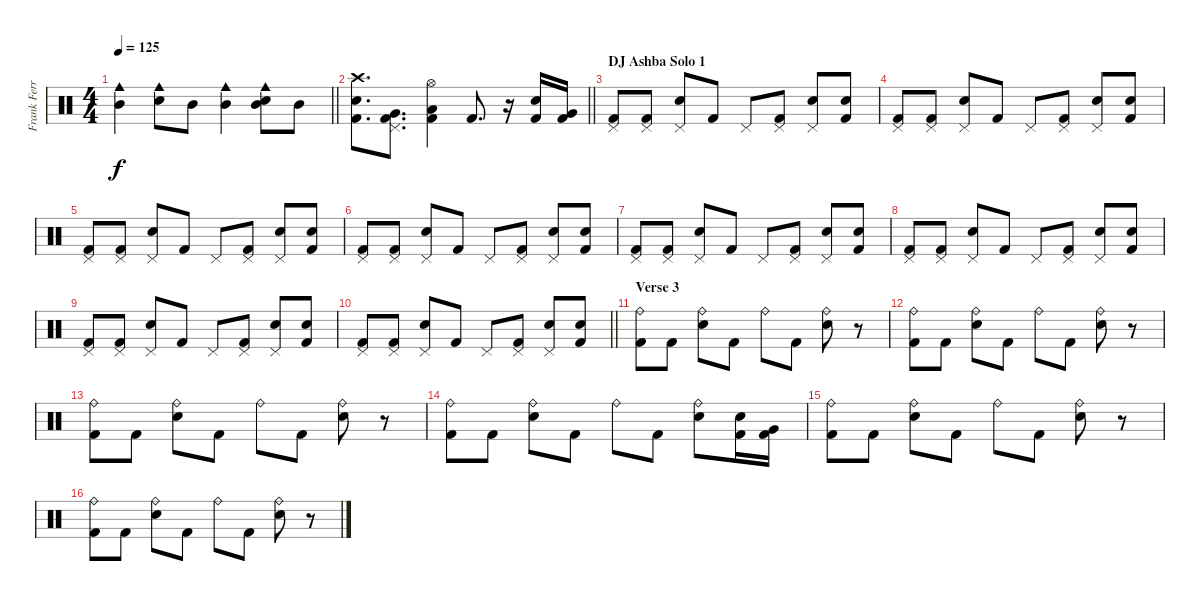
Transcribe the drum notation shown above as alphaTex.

\track ("Frank Ferrer" "Frank Ferr") {instrument percussion}
\staff {score}
\articulation defaults
\ts (4 4)
\tempo 125
\clef neutral
\barLineRight lightlight
\ks c
("Mid Tom (hit)" "Cowbell medium (hit)").4{dy f} ("Electric Snare (hit)" "Cowbell medium (hit)").8 "Mid Tom (hit)".8 ("Mid Tom (hit)" "Cowbell medium (hit)").4 ("Electric Snare (hit)" "Mid Tom (hit)" "Cowbell medium (hit)").8 "Mid Tom (hit)".8 |
\barLineRight lightlight
("Kick (hit) 2" "Snare (hit) 2" "Crash high (hit)").8{d} ("Kick (hit) 2" "Very Low Tom (hit)" "Pedal Hi-Hat (hit)").8{d} ("Kick (hit) 2" "Low Tom (hit)" "Hi-Hat (open)").4 "Kick (hit) 2".8{d} r.16 ("Kick (hit) 2" "Electric Snare (hit)").16 ("Kick (hit) 2" "Very Low Tom (hit)").16 |
\section ("" "DJ Ashba Solo 1")
("Kick (hit) 2" "Pedal Hi-Hat (hit)").8 ("Kick (hit) 2" "Pedal Hi-Hat (hit)").8 ("Electric Snare (hit)" "Pedal Hi-Hat (hit)").8 "Kick (hit) 2".8 "Pedal Hi-Hat (hit)".8 ("Kick (hit) 2" "Pedal Hi-Hat (hit)").8 ("Electric Snare (hit)" "Pedal Hi-Hat (hit)").8 ("Kick (hit) 2" "Snare (hit) 2").8 |
("Kick (hit) 2" "Pedal Hi-Hat (hit)").8 ("Kick (hit) 2" "Pedal Hi-Hat (hit)").8 ("Electric Snare (hit)" "Pedal Hi-Hat (hit)").8 "Kick (hit) 2".8 "Pedal Hi-Hat (hit)".8 ("Kick (hit) 2" "Pedal Hi-Hat (hit)").8 ("Electric Snare (hit)" "Pedal Hi-Hat (hit)").8 ("Kick (hit) 2" "Snare (hit) 2").8 |
("Kick (hit) 2" "Pedal Hi-Hat (hit)").8 ("Kick (hit) 2" "Pedal Hi-Hat (hit)").8 ("Electric Snare (hit)" "Pedal Hi-Hat (hit)").8 "Kick (hit) 2".8 "Pedal Hi-Hat (hit)".8 ("Kick (hit) 2" "Pedal Hi-Hat (hit)").8 ("Electric Snare (hit)" "Pedal Hi-Hat (hit)").8 ("Kick (hit) 2" "Snare (hit) 2").8 |
("Kick (hit) 2" "Pedal Hi-Hat (hit)").8 ("Kick (hit) 2" "Pedal Hi-Hat (hit)").8 ("Electric Snare (hit)" "Pedal Hi-Hat (hit)").8 "Kick (hit) 2".8 "Pedal Hi-Hat (hit)".8 ("Kick (hit) 2" "Pedal Hi-Hat (hit)").8 ("Electric Snare (hit)" "Pedal Hi-Hat (hit)").8 ("Kick (hit) 2" "Snare (hit) 2").8 |
("Kick (hit) 2" "Pedal Hi-Hat (hit)").8 ("Kick (hit) 2" "Pedal Hi-Hat (hit)").8 ("Electric Snare (hit)" "Pedal Hi-Hat (hit)").8 "Kick (hit) 2".8 "Pedal Hi-Hat (hit)".8 ("Kick (hit) 2" "Pedal Hi-Hat (hit)").8 ("Electric Snare (hit)" "Pedal Hi-Hat (hit)").8 ("Kick (hit) 2" "Snare (hit) 2").8 |
("Kick (hit) 2" "Pedal Hi-Hat (hit)").8 ("Kick (hit) 2" "Pedal Hi-Hat (hit)").8 ("Electric Snare (hit)" "Pedal Hi-Hat (hit)").8 "Kick (hit) 2".8 "Pedal Hi-Hat (hit)".8 ("Kick (hit) 2" "Pedal Hi-Hat (hit)").8 ("Electric Snare (hit)" "Pedal Hi-Hat (hit)").8 ("Kick (hit) 2" "Snare (hit) 2").8 |
("Kick (hit) 2" "Pedal Hi-Hat (hit)").8 ("Kick (hit) 2" "Pedal Hi-Hat (hit)").8 ("Electric Snare (hit)" "Pedal Hi-Hat (hit)").8 "Kick (hit) 2".8 "Pedal Hi-Hat (hit)".8 ("Kick (hit) 2" "Pedal Hi-Hat (hit)").8 ("Electric Snare (hit)" "Pedal Hi-Hat (hit)").8 ("Kick (hit) 2" "Snare (hit) 2").8 |
\barLineRight lightlight
("Kick (hit) 2" "Pedal Hi-Hat (hit)").8 ("Kick (hit) 2" "Pedal Hi-Hat (hit)").8 ("Electric Snare (hit)" "Pedal Hi-Hat (hit)").8 "Kick (hit) 2".8 "Pedal Hi-Hat (hit)".8 ("Kick (hit) 2" "Pedal Hi-Hat (hit)").8 ("Electric Snare (hit)" "Pedal Hi-Hat (hit)").8 ("Kick (hit) 2" "Snare (hit) 2").8 |
\section ("" "Verse 3")
("Kick (hit) 2" "Ride (bell)").8 "Kick (hit) 2".8 ("Electric Snare (hit)" "Ride (bell)").8 "Kick (hit) 2".8 "Ride (bell)".8 "Kick (hit) 2".8 ("Electric Snare (hit)" "Ride (bell)").8 r.8 |
("Kick (hit) 2" "Ride (bell)").8 "Kick (hit) 2".8 ("Electric Snare (hit)" "Ride (bell)").8 "Kick (hit) 2".8 "Ride (bell)".8 "Kick (hit) 2".8 ("Electric Snare (hit)" "Ride (bell)").8 r.8 |
("Kick (hit) 2" "Ride (bell)").8 "Kick (hit) 2".8 ("Electric Snare (hit)" "Ride (bell)").8 "Kick (hit) 2".8 "Ride (bell)".8 "Kick (hit) 2".8 ("Electric Snare (hit)" "Ride (bell)").8 r.8 |
("Kick (hit) 2" "Ride (bell)").8 "Kick (hit) 2".8 ("Electric Snare (hit)" "Ride (bell)").8 "Kick (hit) 2".8 "Ride (bell)".8 "Kick (hit) 2".8 ("Electric Snare (hit)" "Ride (bell)").8 ("Kick (hit) 2" "Electric Snare (hit)").16 ("Kick (hit) 2" "Very Low Tom (hit)").16 |
("Kick (hit) 2" "Ride (bell)").8 "Kick (hit) 2".8 ("Electric Snare (hit)" "Ride (bell)").8 "Kick (hit) 2".8 "Ride (bell)".8 "Kick (hit) 2".8 ("Electric Snare (hit)" "Ride (bell)").8 r.8 |
("Kick (hit) 2" "Ride (bell)").8 "Kick (hit) 2".8 ("Electric Snare (hit)" "Ride (bell)").8 "Kick (hit) 2".8 "Ride (bell)".8 "Kick (hit) 2".8 ("Electric Snare (hit)" "Ride (bell)").8 r.8
